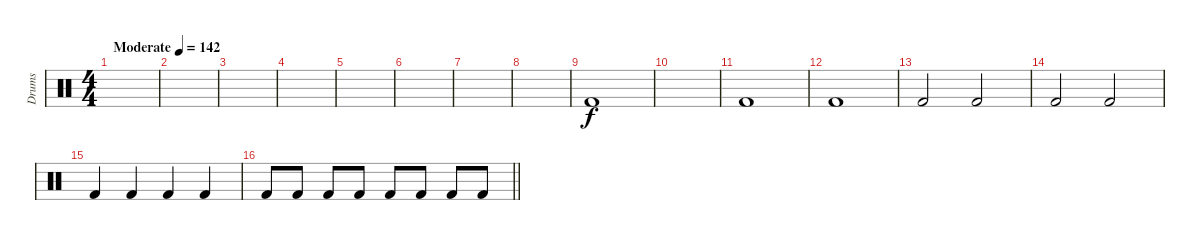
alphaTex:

\track ("Drums" "Drums") {instrument percussion}
\staff
\articulation defaults
\ts (4 4)
\tempo (142 "Moderate")
\clef neutral
\ks c
|
|
|
|
|
|
|
|
"Kick (hit) 2".1 |
|
"Kick (hit) 2".1 |
"Kick (hit) 2".1 |
"Kick (hit) 2".2 "Kick (hit) 2".2 |
"Kick (hit) 2".2 "Kick (hit) 2".2 |
"Kick (hit) 2".4 "Kick (hit) 2".4 "Kick (hit) 2".4 "Kick (hit) 2".4 |
\barLineRight lightlight "Kick (hit) 2".8 "Kick (hit) 2".8 "Kick (hit) 2".8 "Kick (hit) 2".8 "Kick (hit) 2".8 "Kick (hit) 2".8 "Kick (hit) 2".8 "Kick (hit) 2".8
